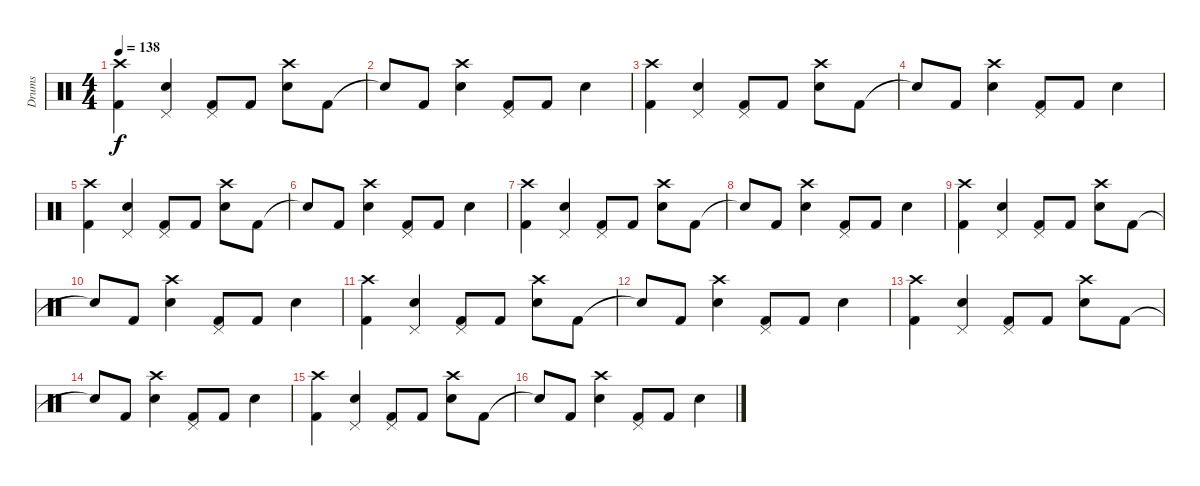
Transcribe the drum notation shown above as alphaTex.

\track ("Drums" "Drums") {instrument percussion}
\staff {score}
\articulation defaults
\ts (4 4)
\tempo 138
\clef neutral
\ks c
("Crash high (hit)" "Kick (hit) 2").4{dy f} ("Pedal Hi-Hat (hit)" "Snare (hit) 2").4 ("Pedal Hi-Hat (hit)" "Kick (hit) 2").8 "Kick (hit) 2".8 ("Crash high (hit)" "Snare (hit) 2").8 "Kick (hit) 2".8 |
"Snare (hit)"{t}.8 "Kick (hit) 2".8 ("Crash high (hit)" "Snare (hit) 2").4 ("Pedal Hi-Hat (hit)" "Kick (hit) 2").8 "Kick (hit) 2".8 "Snare (hit) 2".4 |
("Crash high (hit)" "Kick (hit) 2").4 ("Pedal Hi-Hat (hit)" "Snare (hit) 2").4 ("Pedal Hi-Hat (hit)" "Kick (hit) 2").8 "Kick (hit) 2".8 ("Crash high (hit)" "Snare (hit) 2").8 "Kick (hit) 2".8 |
"Snare (hit)"{t}.8 "Kick (hit) 2".8 ("Crash high (hit)" "Snare (hit) 2").4 ("Pedal Hi-Hat (hit)" "Kick (hit) 2").8 "Kick (hit) 2".8 "Snare (hit) 2".4 |
("Crash high (hit)" "Kick (hit) 2").4 ("Pedal Hi-Hat (hit)" "Snare (hit) 2").4 ("Pedal Hi-Hat (hit)" "Kick (hit) 2").8 "Kick (hit) 2".8 ("Crash high (hit)" "Snare (hit) 2").8 "Kick (hit) 2".8 |
"Snare (hit)"{t}.8 "Kick (hit) 2".8 ("Crash high (hit)" "Snare (hit) 2").4 ("Pedal Hi-Hat (hit)" "Kick (hit) 2").8 "Kick (hit) 2".8 "Snare (hit) 2".4 |
("Crash high (hit)" "Kick (hit) 2").4 ("Pedal Hi-Hat (hit)" "Snare (hit) 2").4 ("Pedal Hi-Hat (hit)" "Kick (hit) 2").8 "Kick (hit) 2".8 ("Crash high (hit)" "Snare (hit) 2").8 "Kick (hit) 2".8 |
"Snare (hit)"{t}.8 "Kick (hit) 2".8 ("Crash high (hit)" "Snare (hit) 2").4 ("Pedal Hi-Hat (hit)" "Kick (hit) 2").8 "Kick (hit) 2".8 "Snare (hit) 2".4 |
("Crash high (hit)" "Kick (hit) 2").4 ("Pedal Hi-Hat (hit)" "Snare (hit) 2").4 ("Pedal Hi-Hat (hit)" "Kick (hit) 2").8 "Kick (hit) 2".8 ("Crash high (hit)" "Snare (hit) 2").8 "Kick (hit) 2".8 |
"Snare (hit)"{t}.8 "Kick (hit) 2".8 ("Crash high (hit)" "Snare (hit) 2").4 ("Pedal Hi-Hat (hit)" "Kick (hit) 2").8 "Kick (hit) 2".8 "Snare (hit) 2".4 |
("Crash high (hit)" "Kick (hit) 2").4 ("Pedal Hi-Hat (hit)" "Snare (hit) 2").4 ("Pedal Hi-Hat (hit)" "Kick (hit) 2").8 "Kick (hit) 2".8 ("Crash high (hit)" "Snare (hit) 2").8 "Kick (hit) 2".8 |
"Snare (hit)"{t}.8 "Kick (hit) 2".8 ("Crash high (hit)" "Snare (hit) 2").4 ("Pedal Hi-Hat (hit)" "Kick (hit) 2").8 "Kick (hit) 2".8 "Snare (hit) 2".4 |
("Crash high (hit)" "Kick (hit) 2").4 ("Pedal Hi-Hat (hit)" "Snare (hit) 2").4 ("Pedal Hi-Hat (hit)" "Kick (hit) 2").8 "Kick (hit) 2".8 ("Crash high (hit)" "Snare (hit) 2").8 "Kick (hit) 2".8 |
"Snare (hit)"{t}.8 "Kick (hit) 2".8 ("Crash high (hit)" "Snare (hit) 2").4 ("Pedal Hi-Hat (hit)" "Kick (hit) 2").8 "Kick (hit) 2".8 "Snare (hit) 2".4 |
("Crash high (hit)" "Kick (hit) 2").4 ("Pedal Hi-Hat (hit)" "Snare (hit) 2").4 ("Pedal Hi-Hat (hit)" "Kick (hit) 2").8 "Kick (hit) 2".8 ("Crash high (hit)" "Snare (hit) 2").8 "Kick (hit) 2".8 |
"Snare (hit)"{t}.8 "Kick (hit) 2".8 ("Crash high (hit)" "Snare (hit) 2").4 ("Pedal Hi-Hat (hit)" "Kick (hit) 2").8 "Kick (hit) 2".8 "Snare (hit) 2".4
